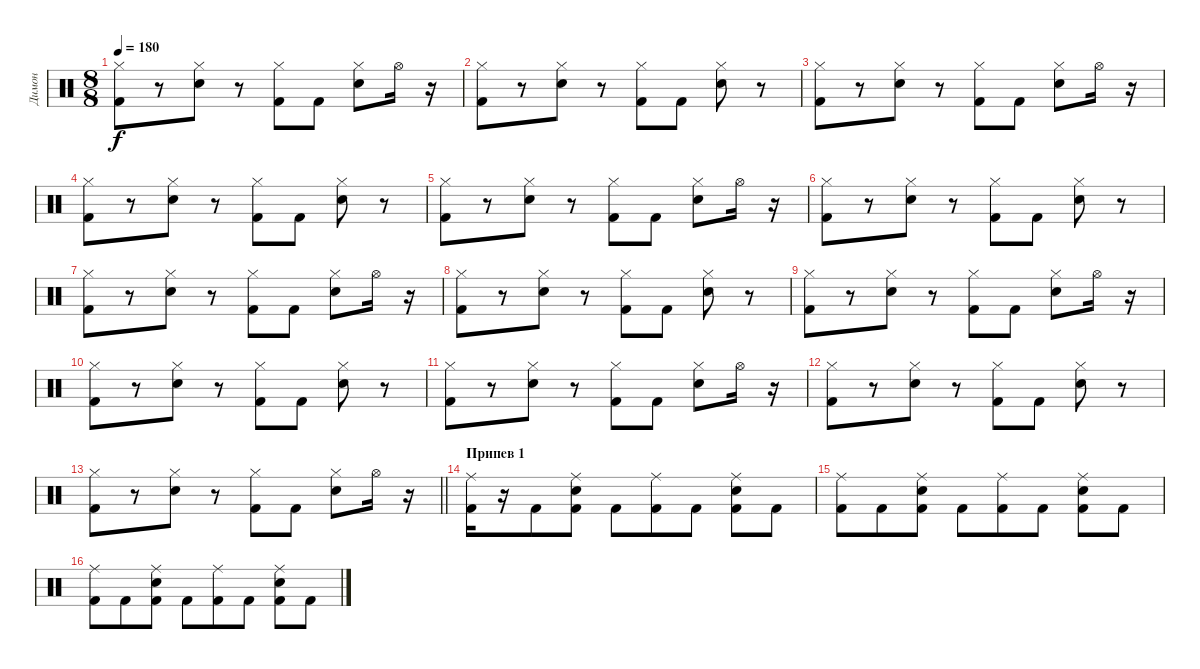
\track ("Димон" "Димон") {instrument percussion}
\staff {score}
\articulation defaults
\ts (8 8)
\tempo 180
\clef neutral
\ks c
("Hi-Hat (closed)" "Kick (hit) 2").8{dy f} r.8 ("Hi-Hat (closed)" "Electric Snare (hit)").8 r.8 ("Hi-Hat (closed)" "Kick (hit) 2").8 "Kick (hit) 2".8 ("Hi-Hat (closed)" "Electric Snare (hit)").8 "Hi-Hat (open)".16 r.16 |
("Hi-Hat (closed)" "Kick (hit) 2").8 r.8 ("Hi-Hat (closed)" "Electric Snare (hit)").8 r.8 ("Hi-Hat (closed)" "Kick (hit) 2").8 "Kick (hit) 2".8 ("Hi-Hat (closed)" "Electric Snare (hit)").8 r.8 |
("Hi-Hat (closed)" "Kick (hit) 2").8 r.8 ("Hi-Hat (closed)" "Electric Snare (hit)").8 r.8 ("Hi-Hat (closed)" "Kick (hit) 2").8 "Kick (hit) 2".8 ("Hi-Hat (closed)" "Electric Snare (hit)").8 "Hi-Hat (open)".16 r.16 |
("Hi-Hat (closed)" "Kick (hit) 2").8 r.8 ("Hi-Hat (closed)" "Electric Snare (hit)").8 r.8 ("Hi-Hat (closed)" "Kick (hit) 2").8 "Kick (hit) 2".8 ("Hi-Hat (closed)" "Electric Snare (hit)").8 r.8 |
("Hi-Hat (closed)" "Kick (hit) 2").8 r.8 ("Hi-Hat (closed)" "Electric Snare (hit)").8 r.8 ("Hi-Hat (closed)" "Kick (hit) 2").8 "Kick (hit) 2".8 ("Hi-Hat (closed)" "Electric Snare (hit)").8 "Hi-Hat (open)".16 r.16 |
("Hi-Hat (closed)" "Kick (hit) 2").8 r.8 ("Hi-Hat (closed)" "Electric Snare (hit)").8 r.8 ("Hi-Hat (closed)" "Kick (hit) 2").8 "Kick (hit) 2".8 ("Hi-Hat (closed)" "Electric Snare (hit)").8 r.8 |
("Hi-Hat (closed)" "Kick (hit) 2").8 r.8 ("Hi-Hat (closed)" "Electric Snare (hit)").8 r.8 ("Hi-Hat (closed)" "Kick (hit) 2").8 "Kick (hit) 2".8 ("Hi-Hat (closed)" "Electric Snare (hit)").8 "Hi-Hat (open)".16 r.16 |
("Hi-Hat (closed)" "Kick (hit) 2").8 r.8 ("Hi-Hat (closed)" "Electric Snare (hit)").8 r.8 ("Hi-Hat (closed)" "Kick (hit) 2").8 "Kick (hit) 2".8 ("Hi-Hat (closed)" "Electric Snare (hit)").8 r.8 |
("Hi-Hat (closed)" "Kick (hit) 2").8 r.8 ("Hi-Hat (closed)" "Electric Snare (hit)").8 r.8 ("Hi-Hat (closed)" "Kick (hit) 2").8 "Kick (hit) 2".8 ("Hi-Hat (closed)" "Electric Snare (hit)").8 "Hi-Hat (open)".16 r.16 |
("Hi-Hat (closed)" "Kick (hit) 2").8 r.8 ("Hi-Hat (closed)" "Electric Snare (hit)").8 r.8 ("Hi-Hat (closed)" "Kick (hit) 2").8 "Kick (hit) 2".8 ("Hi-Hat (closed)" "Electric Snare (hit)").8 r.8 |
("Hi-Hat (closed)" "Kick (hit) 2").8 r.8 ("Hi-Hat (closed)" "Electric Snare (hit)").8 r.8 ("Hi-Hat (closed)" "Kick (hit) 2").8 "Kick (hit) 2".8 ("Hi-Hat (closed)" "Electric Snare (hit)").8 "Hi-Hat (open)".16 r.16 |
("Hi-Hat (closed)" "Kick (hit) 2").8 r.8 ("Hi-Hat (closed)" "Electric Snare (hit)").8 r.8 ("Hi-Hat (closed)" "Kick (hit) 2").8 "Kick (hit) 2".8 ("Hi-Hat (closed)" "Electric Snare (hit)").8 r.8 |
\barLineRight lightlight
("Hi-Hat (closed)" "Kick (hit) 2").8 r.8 ("Hi-Hat (closed)" "Electric Snare (hit)").8 r.8 ("Hi-Hat (closed)" "Kick (hit) 2").8 "Kick (hit) 2".8 ("Hi-Hat (closed)" "Electric Snare (hit)").8 "Hi-Hat (open)".16 r.16 |
\section ("" "Припев 1")
("Ride (middle)" "Kick (hit) 2").16 r.16 "Kick (hit) 2".8 ("Electric Snare (hit)" "Ride (middle)" "Kick (hit) 2").8 "Kick (hit) 2".8 ("Ride (middle)" "Kick (hit) 2").8 "Kick (hit) 2".8 ("Electric Snare (hit)" "Ride (middle)" "Kick (hit) 2").8 "Kick (hit) 2".8 |
("Ride (middle)" "Kick (hit) 2").8 "Kick (hit) 2".8 ("Electric Snare (hit)" "Ride (middle)" "Kick (hit) 2").8 "Kick (hit) 2".8 ("Ride (middle)" "Kick (hit) 2").8 "Kick (hit) 2".8 ("Electric Snare (hit)" "Ride (middle)" "Kick (hit) 2").8 "Kick (hit) 2".8 |
("Ride (middle)" "Kick (hit) 2").8 "Kick (hit) 2".8 ("Electric Snare (hit)" "Ride (middle)" "Kick (hit) 2").8 "Kick (hit) 2".8 ("Ride (middle)" "Kick (hit) 2").8 "Kick (hit) 2".8 ("Electric Snare (hit)" "Ride (middle)" "Kick (hit) 2").8 "Kick (hit) 2".8
